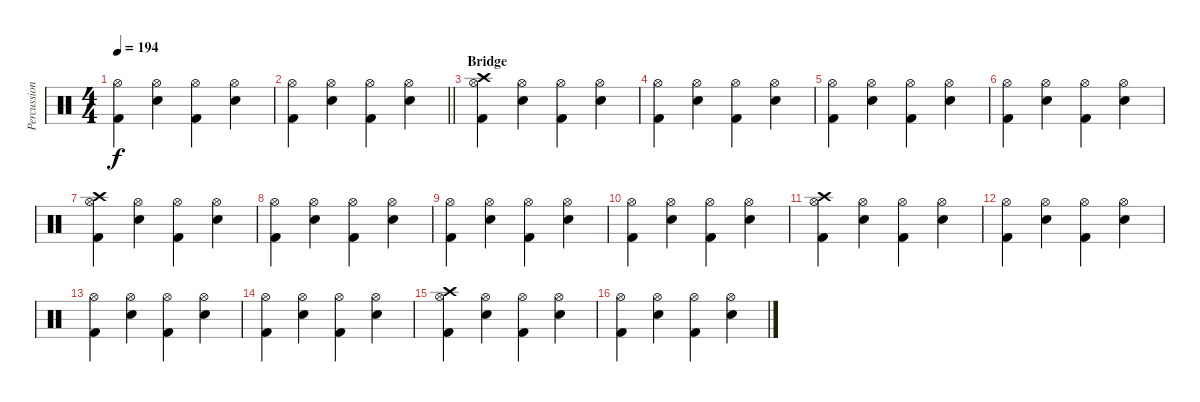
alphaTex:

\track ("Percussion" "Percussion") {instrument percussion}
\staff {score}
\articulation defaults
\ts (4 4)
\tempo 194
\clef neutral
\ks c
("Hi-Hat (open)" "Kick (hit) 2").4{dy f} ("Hi-Hat (open)" "Electric Snare (hit)").4 ("Hi-Hat (open)" "Kick (hit) 2").4 ("Hi-Hat (open)" "Electric Snare (hit)").4 |
\barLineRight lightlight
("Hi-Hat (open)" "Kick (hit) 2").4 ("Hi-Hat (open)" "Electric Snare (hit)").4 ("Hi-Hat (open)" "Kick (hit) 2").4 ("Hi-Hat (open)" "Electric Snare (hit)").4 |
\section ("" "Bridge")
("Crash high (hit)" "Hi-Hat (open)" "Kick (hit) 2").4 ("Hi-Hat (open)" "Electric Snare (hit)").4 ("Hi-Hat (open)" "Kick (hit) 2").4 ("Hi-Hat (open)" "Electric Snare (hit)").4 |
("Hi-Hat (open)" "Kick (hit) 2").4 ("Hi-Hat (open)" "Electric Snare (hit)").4 ("Hi-Hat (open)" "Kick (hit) 2").4 ("Hi-Hat (open)" "Electric Snare (hit)").4 |
("Hi-Hat (open)" "Kick (hit) 2").4 ("Hi-Hat (open)" "Electric Snare (hit)").4 ("Hi-Hat (open)" "Kick (hit) 2").4 ("Hi-Hat (open)" "Electric Snare (hit)").4 |
("Hi-Hat (open)" "Kick (hit) 2").4 ("Hi-Hat (open)" "Electric Snare (hit)").4 ("Hi-Hat (open)" "Kick (hit) 2").4 ("Hi-Hat (open)" "Electric Snare (hit)").4 |
("Crash high (hit)" "Hi-Hat (open)" "Kick (hit) 2").4 ("Hi-Hat (open)" "Electric Snare (hit)").4 ("Hi-Hat (open)" "Kick (hit) 2").4 ("Hi-Hat (open)" "Electric Snare (hit)").4 |
("Hi-Hat (open)" "Kick (hit) 2").4 ("Hi-Hat (open)" "Electric Snare (hit)").4 ("Hi-Hat (open)" "Kick (hit) 2").4 ("Hi-Hat (open)" "Electric Snare (hit)").4 |
("Hi-Hat (open)" "Kick (hit) 2").4 ("Hi-Hat (open)" "Electric Snare (hit)").4 ("Hi-Hat (open)" "Kick (hit) 2").4 ("Hi-Hat (open)" "Electric Snare (hit)").4 |
("Hi-Hat (open)" "Kick (hit) 2").4 ("Hi-Hat (open)" "Electric Snare (hit)").4 ("Hi-Hat (open)" "Kick (hit) 2").4 ("Hi-Hat (open)" "Electric Snare (hit)").4 |
("Crash high (hit)" "Hi-Hat (open)" "Kick (hit) 2").4 ("Hi-Hat (open)" "Electric Snare (hit)").4 ("Hi-Hat (open)" "Kick (hit) 2").4 ("Hi-Hat (open)" "Electric Snare (hit)").4 |
("Hi-Hat (open)" "Kick (hit) 2").4 ("Hi-Hat (open)" "Electric Snare (hit)").4 ("Hi-Hat (open)" "Kick (hit) 2").4 ("Hi-Hat (open)" "Electric Snare (hit)").4 |
("Hi-Hat (open)" "Kick (hit) 2").4 ("Hi-Hat (open)" "Electric Snare (hit)").4 ("Hi-Hat (open)" "Kick (hit) 2").4 ("Hi-Hat (open)" "Electric Snare (hit)").4 |
("Hi-Hat (open)" "Kick (hit) 2").4 ("Hi-Hat (open)" "Electric Snare (hit)").4 ("Hi-Hat (open)" "Kick (hit) 2").4 ("Hi-Hat (open)" "Electric Snare (hit)").4 |
("Crash high (hit)" "Hi-Hat (open)" "Kick (hit) 2").4 ("Hi-Hat (open)" "Electric Snare (hit)").4 ("Hi-Hat (open)" "Kick (hit) 2").4 ("Hi-Hat (open)" "Electric Snare (hit)").4 |
("Hi-Hat (open)" "Kick (hit) 2").4 ("Hi-Hat (open)" "Electric Snare (hit)").4 ("Hi-Hat (open)" "Kick (hit) 2").4 ("Hi-Hat (open)" "Electric Snare (hit)").4
